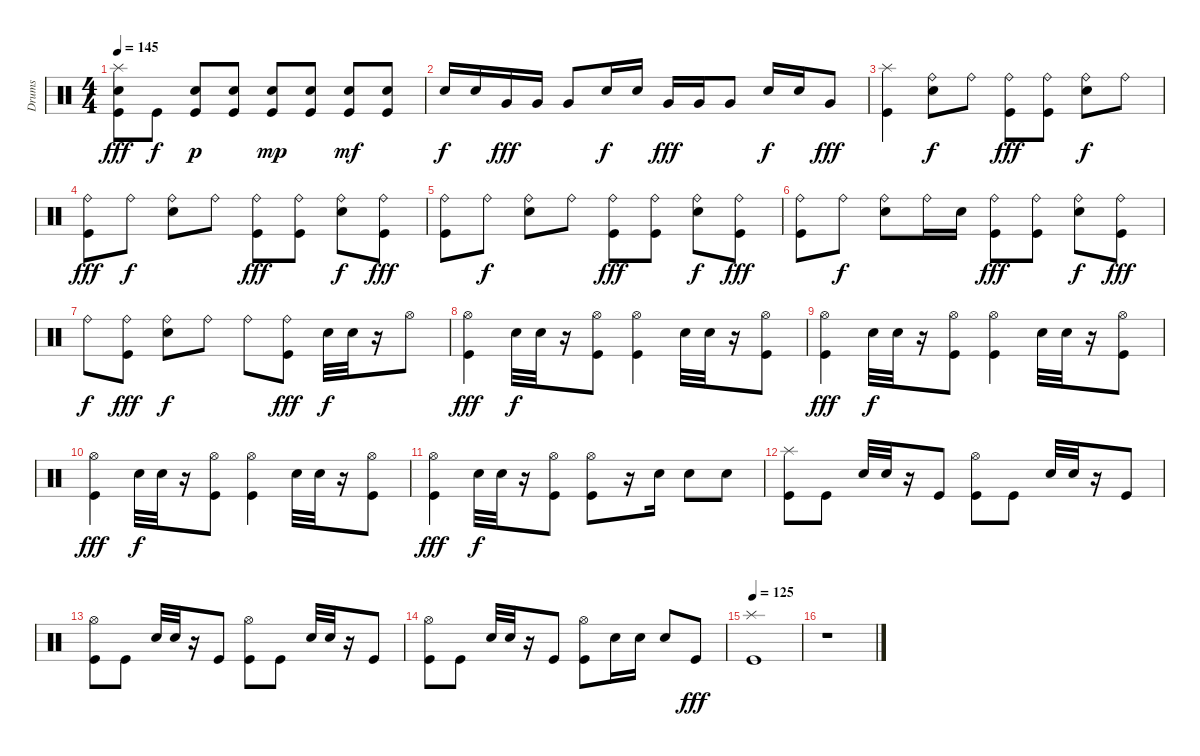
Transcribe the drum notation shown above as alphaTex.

\track ("Drums" "Drums") {instrument percussion}
\staff {score}
\articulation defaults
\ts (4 4)
\tempo 145
\clef neutral
\ks c
("Splash (hit)" "Snare (hit) 2" "Kick (hit)").8{dy fff} "Kick (hit)".8{dy f} ("Snare (hit) 2" "Kick (hit)").8{dy p} ("Snare (hit) 2" "Kick (hit)").8 ("Snare (hit) 2" "Kick (hit)").8{dy mp} ("Snare (hit) 2" "Kick (hit)").8 ("Snare (hit) 2" "Kick (hit)").8{dy mf} ("Snare (hit) 2" "Kick (hit)").8 |
"Snare (hit) 2".16{dy f} "Snare (hit) 2".16 "Very Low Tom (hit)".16{dy fff} "Very Low Tom (hit)".16 "Very Low Tom (hit)".8 "Snare (hit) 2".16{dy f} "Snare (hit) 2".16 "Very Low Tom (hit)".16{dy fff} "Very Low Tom (hit)".16 "Very Low Tom (hit)".8 "Snare (hit) 2".16{dy f} "Snare (hit) 2".16 "Very Low Tom (hit)".8{dy fff} |
("Splash (hit)" "Kick (hit)").4 ("Ride (bell)" "Snare (hit) 2").8{dy f} "Ride (bell)".8 ("Ride (bell)" "Kick (hit)").8{dy fff} ("Ride (bell)" "Kick (hit)").8 ("Ride (bell)" "Snare (hit) 2").8{dy f} "Ride (bell)".8 |
("Ride (bell)" "Kick (hit)").8{dy fff} "Ride (bell)".8{dy f} ("Ride (bell)" "Snare (hit) 2").8 "Ride (bell)".8 ("Ride (bell)" "Kick (hit)").8{dy fff} ("Ride (bell)" "Kick (hit)").8 ("Ride (bell)" "Snare (hit) 2").8{dy f} ("Ride (bell)" "Kick (hit)").8{dy fff} |
("Ride (bell)" "Kick (hit)").8 "Ride (bell)".8{dy f} ("Ride (bell)" "Snare (hit) 2").8 "Ride (bell)".8 ("Ride (bell)" "Kick (hit)").8{dy fff} ("Ride (bell)" "Kick (hit)").8 ("Ride (bell)" "Snare (hit) 2").8{dy f} ("Ride (bell)" "Kick (hit)").8{dy fff} |
("Ride (bell)" "Kick (hit)").8 "Ride (bell)".8{dy f} ("Ride (bell)" "Snare (hit) 2").8 "Ride (bell)".16 "Snare (hit) 2".16 ("Ride (bell)" "Kick (hit)").8{dy fff} ("Ride (bell)" "Kick (hit)").8 ("Ride (bell)" "Snare (hit) 2").8{dy f} ("Ride (bell)" "Kick (hit)").8{dy fff} |
"Ride (bell)".8{dy f} ("Ride (bell)" "Kick (hit)").8{dy fff} ("Ride (bell)" "Snare (hit) 2").8{dy f} "Ride (bell)".8 "Ride (bell)".8 ("Ride (bell)" "Kick (hit)").8{dy fff} "Snare (hit) 2".32{dy f} "Snare (hit) 2".32 r.16 "Hi-Hat (open)".8 |
("Hi-Hat (open)" "Kick (hit)").4{dy fff} "Snare (hit) 2".32{dy f} "Snare (hit) 2".32 r.16 ("Hi-Hat (open)" "Kick (hit)").8 ("Hi-Hat (open)" "Kick (hit)").4 "Snare (hit) 2".32 "Snare (hit) 2".32 r.16 ("Hi-Hat (open)" "Kick (hit)").8 |
("Hi-Hat (open)" "Kick (hit)").4{dy fff} "Snare (hit) 2".32{dy f} "Snare (hit) 2".32 r.16 ("Hi-Hat (open)" "Kick (hit)").8 ("Hi-Hat (open)" "Kick (hit)").4 "Snare (hit) 2".32 "Snare (hit) 2".32 r.16 ("Hi-Hat (open)" "Kick (hit)").8 |
("Hi-Hat (open)" "Kick (hit)").4{dy fff} "Snare (hit) 2".32{dy f} "Snare (hit) 2".32 r.16 ("Hi-Hat (open)" "Kick (hit)").8 ("Hi-Hat (open)" "Kick (hit)").4 "Snare (hit) 2".32 "Snare (hit) 2".32 r.16 ("Hi-Hat (open)" "Kick (hit)").8 |
("Hi-Hat (open)" "Kick (hit)").4{dy fff} "Snare (hit) 2".32{dy f} "Snare (hit) 2".32 r.16 ("Hi-Hat (open)" "Kick (hit)").8 ("Hi-Hat (open)" "Kick (hit)").8 r.16 "Snare (hit) 2".16 "Snare (hit) 2".8 "Snare (hit) 2".8 |
("Splash (hit)" "Kick (hit)").8 "Kick (hit)".8 "Snare (hit) 2".32 "Snare (hit) 2".32 r.16 "Kick (hit)".8 ("Hi-Hat (open)" "Kick (hit)").8 "Kick (hit)".8 "Snare (hit) 2".32 "Snare (hit) 2".32 r.16 "Kick (hit)".8 |
("Hi-Hat (open)" "Kick (hit)").8 "Kick (hit)".8 "Snare (hit) 2".32 "Snare (hit) 2".32 r.16 "Kick (hit)".8 ("Hi-Hat (open)" "Kick (hit)").8 "Kick (hit)".8 "Snare (hit) 2".32 "Snare (hit) 2".32 r.16 "Kick (hit)".8 |
("Hi-Hat (open)" "Kick (hit)").8 "Kick (hit)".8 "Snare (hit) 2".32 "Snare (hit) 2".32 r.16 "Kick (hit)".8 ("Hi-Hat (open)" "Kick (hit)").8 "Snare (hit) 2".16 "Snare (hit) 2".16 "Snare (hit) 2".8 "Kick (hit)".8{dy fff} |
\tempo 125
("Splash (hit)" "Kick (hit)").1 |
r.1
